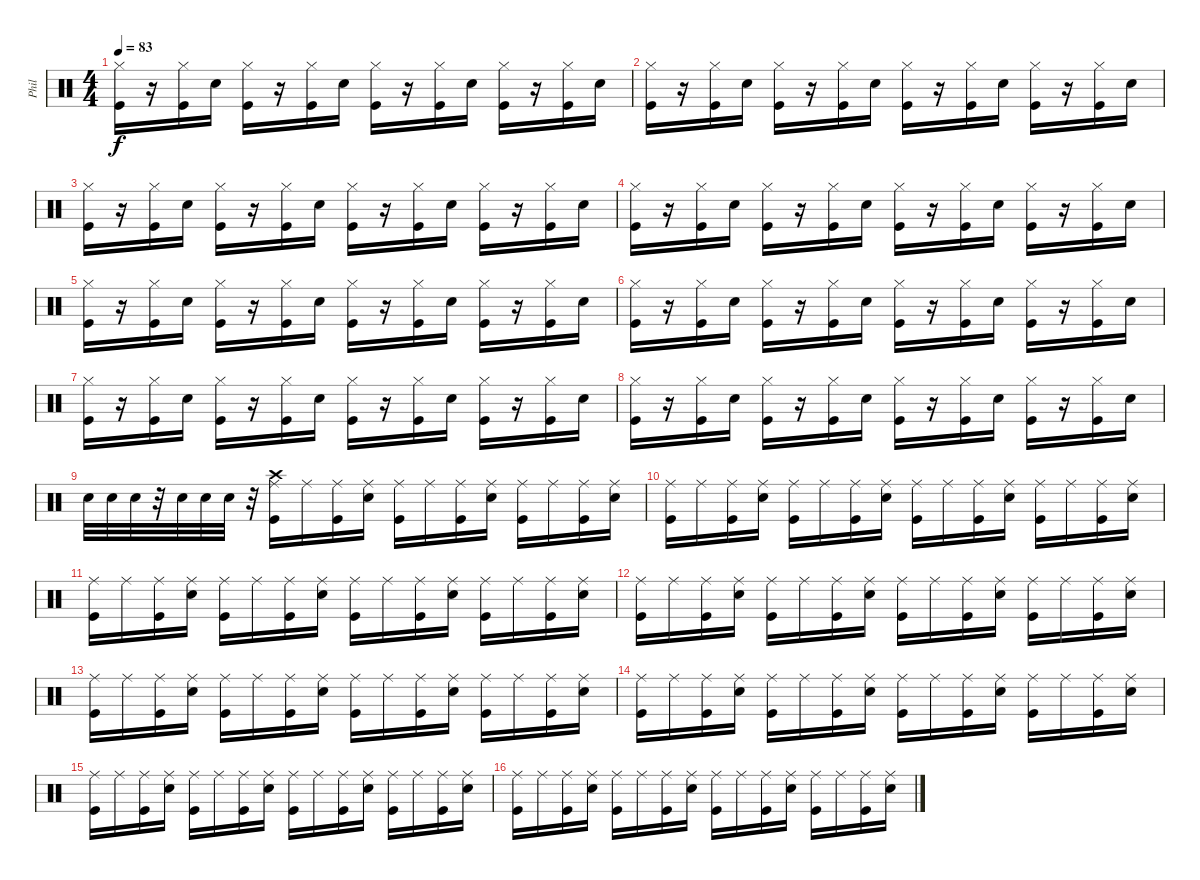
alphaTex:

\track ("Phil" "Phil") {instrument percussion}
\staff {score}
\articulation defaults
\ts (4 4)
\tempo 83
\clef neutral
\ks c
("Hi-Hat (closed)" "Kick (hit)").16{dy f} r.16 ("Hi-Hat (closed)" "Kick (hit)").16 "Snare (hit) 2".16 ("Hi-Hat (closed)" "Kick (hit)").16 r.16 ("Hi-Hat (closed)" "Kick (hit)").16 "Snare (hit) 2".16 ("Hi-Hat (closed)" "Kick (hit)").16 r.16 ("Hi-Hat (closed)" "Kick (hit)").16 "Snare (hit) 2".16 ("Hi-Hat (closed)" "Kick (hit)").16 r.16 ("Hi-Hat (closed)" "Kick (hit)").16 "Snare (hit) 2".16 |
("Hi-Hat (closed)" "Kick (hit)").16 r.16 ("Hi-Hat (closed)" "Kick (hit)").16 "Snare (hit) 2".16 ("Hi-Hat (closed)" "Kick (hit)").16 r.16 ("Hi-Hat (closed)" "Kick (hit)").16 "Snare (hit) 2".16 ("Hi-Hat (closed)" "Kick (hit)").16 r.16 ("Hi-Hat (closed)" "Kick (hit)").16 "Snare (hit) 2".16 ("Hi-Hat (closed)" "Kick (hit)").16 r.16 ("Hi-Hat (closed)" "Kick (hit)").16 "Snare (hit) 2".16 |
("Hi-Hat (closed)" "Kick (hit)").16 r.16 ("Hi-Hat (closed)" "Kick (hit)").16 "Snare (hit) 2".16 ("Hi-Hat (closed)" "Kick (hit)").16 r.16 ("Hi-Hat (closed)" "Kick (hit)").16 "Snare (hit) 2".16 ("Hi-Hat (closed)" "Kick (hit)").16 r.16 ("Hi-Hat (closed)" "Kick (hit)").16 "Snare (hit) 2".16 ("Hi-Hat (closed)" "Kick (hit)").16 r.16 ("Hi-Hat (closed)" "Kick (hit)").16 "Snare (hit) 2".16 |
("Hi-Hat (closed)" "Kick (hit)").16 r.16 ("Hi-Hat (closed)" "Kick (hit)").16 "Snare (hit) 2".16 ("Hi-Hat (closed)" "Kick (hit)").16 r.16 ("Hi-Hat (closed)" "Kick (hit)").16 "Snare (hit) 2".16 ("Hi-Hat (closed)" "Kick (hit)").16 r.16 ("Hi-Hat (closed)" "Kick (hit)").16 "Snare (hit) 2".16 ("Hi-Hat (closed)" "Kick (hit)").16 r.16 ("Hi-Hat (closed)" "Kick (hit)").16 "Snare (hit) 2".16 |
("Hi-Hat (closed)" "Kick (hit)").16 r.16 ("Hi-Hat (closed)" "Kick (hit)").16 "Snare (hit) 2".16 ("Hi-Hat (closed)" "Kick (hit)").16 r.16 ("Hi-Hat (closed)" "Kick (hit)").16 "Snare (hit) 2".16 ("Hi-Hat (closed)" "Kick (hit)").16 r.16 ("Hi-Hat (closed)" "Kick (hit)").16 "Snare (hit) 2".16 ("Hi-Hat (closed)" "Kick (hit)").16 r.16 ("Hi-Hat (closed)" "Kick (hit)").16 "Snare (hit) 2".16 |
("Hi-Hat (closed)" "Kick (hit)").16 r.16 ("Hi-Hat (closed)" "Kick (hit)").16 "Snare (hit) 2".16 ("Hi-Hat (closed)" "Kick (hit)").16 r.16 ("Hi-Hat (closed)" "Kick (hit)").16 "Snare (hit) 2".16 ("Hi-Hat (closed)" "Kick (hit)").16 r.16 ("Hi-Hat (closed)" "Kick (hit)").16 "Snare (hit) 2".16 ("Hi-Hat (closed)" "Kick (hit)").16 r.16 ("Hi-Hat (closed)" "Kick (hit)").16 "Snare (hit) 2".16 |
("Hi-Hat (closed)" "Kick (hit)").16 r.16 ("Hi-Hat (closed)" "Kick (hit)").16 "Snare (hit) 2".16 ("Hi-Hat (closed)" "Kick (hit)").16 r.16 ("Hi-Hat (closed)" "Kick (hit)").16 "Snare (hit) 2".16 ("Hi-Hat (closed)" "Kick (hit)").16 r.16 ("Hi-Hat (closed)" "Kick (hit)").16 "Snare (hit) 2".16 ("Hi-Hat (closed)" "Kick (hit)").16 r.16 ("Hi-Hat (closed)" "Kick (hit)").16 "Snare (hit) 2".16 |
("Hi-Hat (closed)" "Kick (hit)").16 r.16 ("Hi-Hat (closed)" "Kick (hit)").16 "Snare (hit) 2".16 ("Hi-Hat (closed)" "Kick (hit)").16 r.16 ("Hi-Hat (closed)" "Kick (hit)").16 "Snare (hit) 2".16 ("Hi-Hat (closed)" "Kick (hit)").16 r.16 ("Hi-Hat (closed)" "Kick (hit)").16 "Snare (hit) 2".16 ("Hi-Hat (closed)" "Kick (hit)").16 r.16 ("Hi-Hat (closed)" "Kick (hit)").16 "Snare (hit) 2".16 |
"Snare (hit) 2".32 "Snare (hit) 2".32 "Snare (hit) 2".32 r.32 "Snare (hit) 2".32 "Snare (hit) 2".32 "Snare (hit) 2".32 r.32 ("Ride (middle)" "Kick (hit)" "Crash high (hit)").16 "Ride (middle)".16 ("Ride (middle)" "Kick (hit)").16 ("Ride (middle)" "Snare (hit) 2").16 ("Ride (middle)" "Kick (hit)").16 "Ride (middle)".16 ("Ride (middle)" "Kick (hit)").16 ("Ride (middle)" "Snare (hit) 2").16 ("Ride (middle)" "Kick (hit)").16 "Ride (middle)".16 ("Ride (middle)" "Kick (hit)").16 ("Ride (middle)" "Snare (hit) 2").16 |
("Ride (middle)" "Kick (hit)").16 "Ride (middle)".16 ("Ride (middle)" "Kick (hit)").16 ("Ride (middle)" "Snare (hit) 2").16 ("Ride (middle)" "Kick (hit)").16 "Ride (middle)".16 ("Ride (middle)" "Kick (hit)").16 ("Ride (middle)" "Snare (hit) 2").16 ("Ride (middle)" "Kick (hit)").16 "Ride (middle)".16 ("Ride (middle)" "Kick (hit)").16 ("Ride (middle)" "Snare (hit) 2").16 ("Ride (middle)" "Kick (hit)").16 "Ride (middle)".16 ("Ride (middle)" "Kick (hit)").16 ("Ride (middle)" "Snare (hit) 2").16 |
("Ride (middle)" "Kick (hit)").16 "Ride (middle)".16 ("Ride (middle)" "Kick (hit)").16 ("Ride (middle)" "Snare (hit) 2").16 ("Ride (middle)" "Kick (hit)").16 "Ride (middle)".16 ("Ride (middle)" "Kick (hit)").16 ("Ride (middle)" "Snare (hit) 2").16 ("Ride (middle)" "Kick (hit)").16 "Ride (middle)".16 ("Ride (middle)" "Kick (hit)").16 ("Ride (middle)" "Snare (hit) 2").16 ("Ride (middle)" "Kick (hit)").16 "Ride (middle)".16 ("Ride (middle)" "Kick (hit)").16 ("Ride (middle)" "Snare (hit) 2").16 |
("Ride (middle)" "Kick (hit)").16 "Ride (middle)".16 ("Ride (middle)" "Kick (hit)").16 ("Ride (middle)" "Snare (hit) 2").16 ("Ride (middle)" "Kick (hit)").16 "Ride (middle)".16 ("Ride (middle)" "Kick (hit)").16 ("Ride (middle)" "Snare (hit) 2").16 ("Ride (middle)" "Kick (hit)").16 "Ride (middle)".16 ("Ride (middle)" "Kick (hit)").16 ("Ride (middle)" "Snare (hit) 2").16 ("Ride (middle)" "Kick (hit)").16 "Ride (middle)".16 ("Ride (middle)" "Kick (hit)").16 ("Ride (middle)" "Snare (hit) 2").16 |
("Ride (middle)" "Kick (hit)").16 "Ride (middle)".16 ("Ride (middle)" "Kick (hit)").16 ("Ride (middle)" "Snare (hit) 2").16 ("Ride (middle)" "Kick (hit)").16 "Ride (middle)".16 ("Ride (middle)" "Kick (hit)").16 ("Ride (middle)" "Snare (hit) 2").16 ("Ride (middle)" "Kick (hit)").16 "Ride (middle)".16 ("Ride (middle)" "Kick (hit)").16 ("Ride (middle)" "Snare (hit) 2").16 ("Ride (middle)" "Kick (hit)").16 "Ride (middle)".16 ("Ride (middle)" "Kick (hit)").16 ("Ride (middle)" "Snare (hit) 2").16 |
("Ride (middle)" "Kick (hit)").16 "Ride (middle)".16 ("Ride (middle)" "Kick (hit)").16 ("Ride (middle)" "Snare (hit) 2").16 ("Ride (middle)" "Kick (hit)").16 "Ride (middle)".16 ("Ride (middle)" "Kick (hit)").16 ("Ride (middle)" "Snare (hit) 2").16 ("Ride (middle)" "Kick (hit)").16 "Ride (middle)".16 ("Ride (middle)" "Kick (hit)").16 ("Ride (middle)" "Snare (hit) 2").16 ("Ride (middle)" "Kick (hit)").16 "Ride (middle)".16 ("Ride (middle)" "Kick (hit)").16 ("Ride (middle)" "Snare (hit) 2").16 |
("Ride (middle)" "Kick (hit)").16 "Ride (middle)".16 ("Ride (middle)" "Kick (hit)").16 ("Ride (middle)" "Snare (hit) 2").16 ("Ride (middle)" "Kick (hit)").16 "Ride (middle)".16 ("Ride (middle)" "Kick (hit)").16 ("Ride (middle)" "Snare (hit) 2").16 ("Ride (middle)" "Kick (hit)").16 "Ride (middle)".16 ("Ride (middle)" "Kick (hit)").16 ("Ride (middle)" "Snare (hit) 2").16 ("Ride (middle)" "Kick (hit)").16 "Ride (middle)".16 ("Ride (middle)" "Kick (hit)").16 ("Ride (middle)" "Snare (hit) 2").16 |
("Ride (middle)" "Kick (hit)").16 "Ride (middle)".16 ("Ride (middle)" "Kick (hit)").16 ("Ride (middle)" "Snare (hit) 2").16 ("Ride (middle)" "Kick (hit)").16 "Ride (middle)".16 ("Ride (middle)" "Kick (hit)").16 ("Ride (middle)" "Snare (hit) 2").16 ("Ride (middle)" "Kick (hit)").16 "Ride (middle)".16 ("Ride (middle)" "Kick (hit)").16 ("Ride (middle)" "Snare (hit) 2").16 ("Ride (middle)" "Kick (hit)").16 "Ride (middle)".16 ("Ride (middle)" "Kick (hit)").16 ("Ride (middle)" "Snare (hit) 2").16
